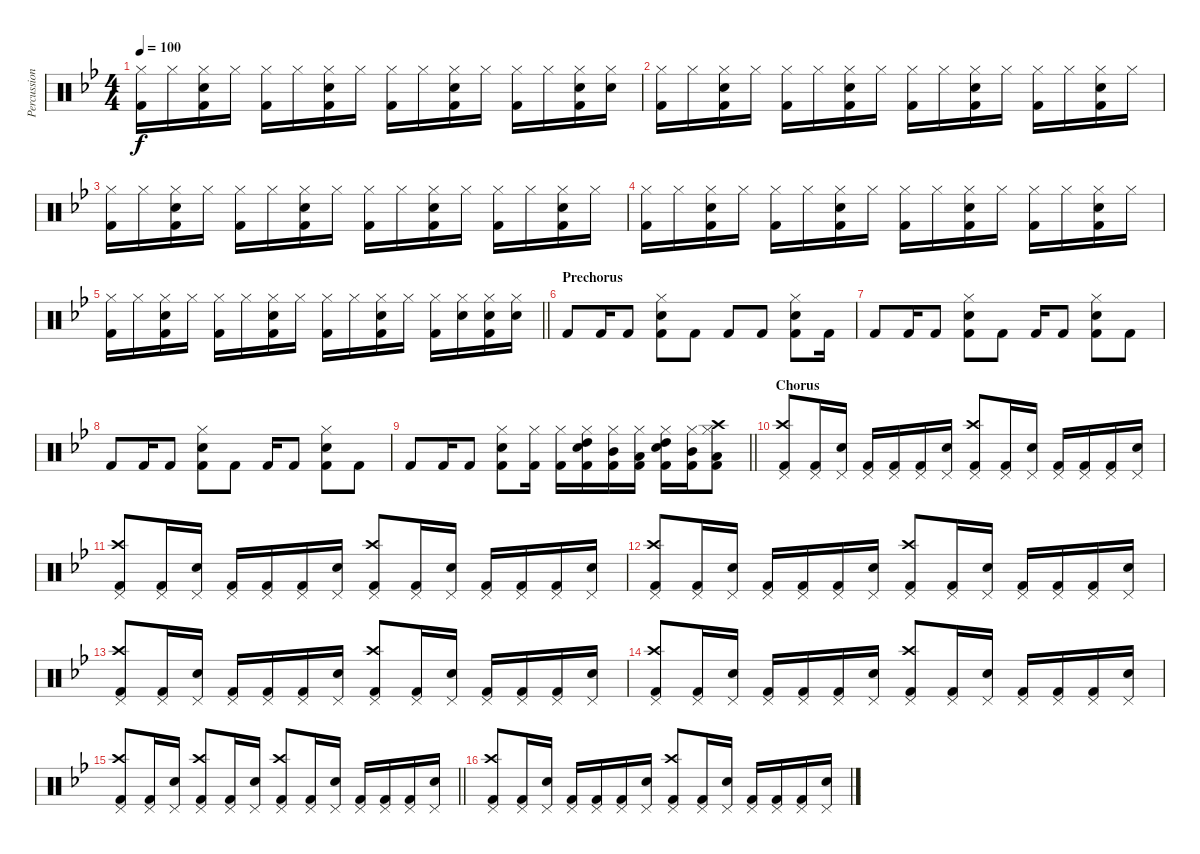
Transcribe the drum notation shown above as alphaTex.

\track ("Percussion" "Percussion") {instrument percussion}
\staff {score}
\articulation defaults
\ts (4 4)
\tempo 100
\clef neutral
\ks bb
("Hi-Hat (closed)" "Kick (hit) 2").16{dy f} "Hi-Hat (closed)".16 ("Electric Snare (hit)" "Hi-Hat (closed)" "Kick (hit) 2").16 "Hi-Hat (closed)".16 ("Hi-Hat (closed)" "Kick (hit) 2").16 "Hi-Hat (closed)".16 ("Electric Snare (hit)" "Hi-Hat (closed)" "Kick (hit) 2").16 "Hi-Hat (closed)".16 ("Hi-Hat (closed)" "Kick (hit) 2").16 "Hi-Hat (closed)".16 ("Electric Snare (hit)" "Hi-Hat (closed)" "Kick (hit) 2").16 "Hi-Hat (closed)".16 ("Hi-Hat (closed)" "Kick (hit) 2").16 "Hi-Hat (closed)".16 ("Electric Snare (hit)" "Hi-Hat (closed)" "Kick (hit) 2").16 ("Electric Snare (hit)" "Hi-Hat (closed)").16 |
("Hi-Hat (closed)" "Kick (hit) 2").16 "Hi-Hat (closed)".16 ("Electric Snare (hit)" "Hi-Hat (closed)" "Kick (hit) 2").16 "Hi-Hat (closed)".16 ("Hi-Hat (closed)" "Kick (hit) 2").16 "Hi-Hat (closed)".16 ("Electric Snare (hit)" "Hi-Hat (closed)" "Kick (hit) 2").16 "Hi-Hat (closed)".16 ("Hi-Hat (closed)" "Kick (hit) 2").16 "Hi-Hat (closed)".16 ("Electric Snare (hit)" "Hi-Hat (closed)" "Kick (hit) 2").16 "Hi-Hat (closed)".16 ("Hi-Hat (closed)" "Kick (hit) 2").16 "Hi-Hat (closed)".16 ("Electric Snare (hit)" "Hi-Hat (closed)" "Kick (hit) 2").16 "Hi-Hat (closed)".16 |
("Hi-Hat (closed)" "Kick (hit) 2").16 "Hi-Hat (closed)".16 ("Electric Snare (hit)" "Hi-Hat (closed)" "Kick (hit) 2").16 "Hi-Hat (closed)".16 ("Hi-Hat (closed)" "Kick (hit) 2").16 "Hi-Hat (closed)".16 ("Electric Snare (hit)" "Hi-Hat (closed)" "Kick (hit) 2").16 "Hi-Hat (closed)".16 ("Hi-Hat (closed)" "Kick (hit) 2").16 "Hi-Hat (closed)".16 ("Electric Snare (hit)" "Hi-Hat (closed)" "Kick (hit) 2").16 "Hi-Hat (closed)".16 ("Hi-Hat (closed)" "Kick (hit) 2").16 "Hi-Hat (closed)".16 ("Electric Snare (hit)" "Hi-Hat (closed)" "Kick (hit) 2").16 "Hi-Hat (closed)".16 |
("Hi-Hat (closed)" "Kick (hit) 2").16 "Hi-Hat (closed)".16 ("Electric Snare (hit)" "Hi-Hat (closed)" "Kick (hit) 2").16 "Hi-Hat (closed)".16 ("Hi-Hat (closed)" "Kick (hit) 2").16 "Hi-Hat (closed)".16 ("Electric Snare (hit)" "Hi-Hat (closed)" "Kick (hit) 2").16 "Hi-Hat (closed)".16 ("Hi-Hat (closed)" "Kick (hit) 2").16 "Hi-Hat (closed)".16 ("Electric Snare (hit)" "Hi-Hat (closed)" "Kick (hit) 2").16 "Hi-Hat (closed)".16 ("Hi-Hat (closed)" "Kick (hit) 2").16 "Hi-Hat (closed)".16 ("Electric Snare (hit)" "Hi-Hat (closed)" "Kick (hit) 2").16 "Hi-Hat (closed)".16 |
\barLineRight lightlight
("Hi-Hat (closed)" "Kick (hit) 2").16 "Hi-Hat (closed)".16 ("Electric Snare (hit)" "Hi-Hat (closed)" "Kick (hit) 2").16 "Hi-Hat (closed)".16 ("Hi-Hat (closed)" "Kick (hit) 2").16 "Hi-Hat (closed)".16 ("Electric Snare (hit)" "Hi-Hat (closed)" "Kick (hit) 2").16 "Hi-Hat (closed)".16 ("Hi-Hat (closed)" "Kick (hit) 2").16 "Hi-Hat (closed)".16 ("Electric Snare (hit)" "Hi-Hat (closed)" "Kick (hit) 2").16 "Hi-Hat (closed)".16 ("Hi-Hat (closed)" "Kick (hit) 2").16 ("Electric Snare (hit)" "Hi-Hat (closed)").16 ("Electric Snare (hit)" "Hi-Hat (closed)" "Kick (hit) 2").16 ("Electric Snare (hit)" "Hi-Hat (closed)").16 |
\section ("" "Prechorus")
"Kick (hit) 2".8 "Kick (hit) 2".16 "Kick (hit) 2".8 ("Electric Snare (hit)" "Hi-Hat (closed)" "Kick (hit) 2").8 "Kick (hit) 2".8 "Kick (hit) 2".8 "Kick (hit) 2".8 ("Electric Snare (hit)" "Hi-Hat (closed)" "Kick (hit) 2").8 "Kick (hit) 2".16 |
"Kick (hit) 2".8 "Kick (hit) 2".16 "Kick (hit) 2".8 ("Electric Snare (hit)" "Hi-Hat (closed)" "Kick (hit) 2").8 "Kick (hit) 2".8 "Kick (hit) 2".16 "Kick (hit) 2".8 ("Electric Snare (hit)" "Hi-Hat (closed)" "Kick (hit) 2").8 "Kick (hit) 2".8 |
"Kick (hit) 2".8 "Kick (hit) 2".16 "Kick (hit) 2".8 ("Electric Snare (hit)" "Hi-Hat (closed)" "Kick (hit) 2").8 "Kick (hit) 2".8 "Kick (hit) 2".16 "Kick (hit) 2".8 ("Electric Snare (hit)" "Hi-Hat (closed)" "Kick (hit) 2").8 "Kick (hit) 2".8 |
\barLineRight lightlight "Kick (hit) 2".8 "Kick (hit) 2".16 "Kick (hit) 2".8
("Electric Snare (hit)" "Hi-Hat (closed)" "Kick (hit) 2").8 ("Hi-Hat (closed)" "Kick (hit) 2").16 ("Hi-Hat (closed)" "Kick (hit) 2").16 ("High Tom (hit)" "Electric Snare (hit)" "Hi-Hat (closed)" "Kick (hit) 2").16 ("Mid Tom (hit)" "Hi-Hat (closed)" "Kick (hit) 2").16 ("Low Tom (hit)" "Hi-Hat (closed)" "Kick (hit) 2").16 ("High Tom (hit)" "Electric Snare (hit)" "Hi-Hat (closed)" "Kick (hit) 2").16 ("Mid Tom (hit)" "Hi-Hat (closed)" "Kick (hit) 2").16 ("Crash high (hit)" "Low Tom (hit)" "Hi-Hat (closed)" "Kick (hit) 2").8 |
\section ("" "Chorus")
("Crash high (hit)" "Pedal Hi-Hat (hit)" "Kick (hit) 2").8 ("Pedal Hi-Hat (hit)" "Kick (hit) 2").16 ("Electric Snare (hit)" "Pedal Hi-Hat (hit)").16 ("Pedal Hi-Hat (hit)" "Kick (hit) 2").16 ("Pedal Hi-Hat (hit)" "Kick (hit) 2").16 ("Pedal Hi-Hat (hit)" "Kick (hit) 2").16 ("Electric Snare (hit)" "Pedal Hi-Hat (hit)").16 ("Crash high (hit)" "Pedal Hi-Hat (hit)" "Kick (hit) 2").8 ("Pedal Hi-Hat (hit)" "Kick (hit) 2").16 ("Electric Snare (hit)" "Pedal Hi-Hat (hit)").16 ("Pedal Hi-Hat (hit)" "Kick (hit) 2").16 ("Pedal Hi-Hat (hit)" "Kick (hit) 2").16 ("Pedal Hi-Hat (hit)" "Kick (hit) 2").16 ("Electric Snare (hit)" "Pedal Hi-Hat (hit)").16 |
("Crash high (hit)" "Pedal Hi-Hat (hit)" "Kick (hit) 2").8 ("Pedal Hi-Hat (hit)" "Kick (hit) 2").16 ("Electric Snare (hit)" "Pedal Hi-Hat (hit)").16 ("Pedal Hi-Hat (hit)" "Kick (hit) 2").16 ("Pedal Hi-Hat (hit)" "Kick (hit) 2").16 ("Pedal Hi-Hat (hit)" "Kick (hit) 2").16 ("Electric Snare (hit)" "Pedal Hi-Hat (hit)").16 ("Crash high (hit)" "Pedal Hi-Hat (hit)" "Kick (hit) 2").8 ("Pedal Hi-Hat (hit)" "Kick (hit) 2").16 ("Electric Snare (hit)" "Pedal Hi-Hat (hit)").16 ("Pedal Hi-Hat (hit)" "Kick (hit) 2").16 ("Pedal Hi-Hat (hit)" "Kick (hit) 2").16 ("Pedal Hi-Hat (hit)" "Kick (hit) 2").16 ("Electric Snare (hit)" "Pedal Hi-Hat (hit)").16 |
("Crash high (hit)" "Pedal Hi-Hat (hit)" "Kick (hit) 2").8 ("Pedal Hi-Hat (hit)" "Kick (hit) 2").16 ("Electric Snare (hit)" "Pedal Hi-Hat (hit)").16 ("Pedal Hi-Hat (hit)" "Kick (hit) 2").16 ("Pedal Hi-Hat (hit)" "Kick (hit) 2").16 ("Pedal Hi-Hat (hit)" "Kick (hit) 2").16 ("Electric Snare (hit)" "Pedal Hi-Hat (hit)").16 ("Crash high (hit)" "Pedal Hi-Hat (hit)" "Kick (hit) 2").8 ("Pedal Hi-Hat (hit)" "Kick (hit) 2").16 ("Electric Snare (hit)" "Pedal Hi-Hat (hit)").16 ("Pedal Hi-Hat (hit)" "Kick (hit) 2").16 ("Pedal Hi-Hat (hit)" "Kick (hit) 2").16 ("Pedal Hi-Hat (hit)" "Kick (hit) 2").16 ("Electric Snare (hit)" "Pedal Hi-Hat (hit)").16 |
("Crash high (hit)" "Pedal Hi-Hat (hit)" "Kick (hit) 2").8 ("Pedal Hi-Hat (hit)" "Kick (hit) 2").16 ("Electric Snare (hit)" "Pedal Hi-Hat (hit)").16 ("Pedal Hi-Hat (hit)" "Kick (hit) 2").16 ("Pedal Hi-Hat (hit)" "Kick (hit) 2").16 ("Pedal Hi-Hat (hit)" "Kick (hit) 2").16 ("Electric Snare (hit)" "Pedal Hi-Hat (hit)").16 ("Crash high (hit)" "Pedal Hi-Hat (hit)" "Kick (hit) 2").8 ("Pedal Hi-Hat (hit)" "Kick (hit) 2").16 ("Electric Snare (hit)" "Pedal Hi-Hat (hit)").16 ("Pedal Hi-Hat (hit)" "Kick (hit) 2").16 ("Pedal Hi-Hat (hit)" "Kick (hit) 2").16 ("Pedal Hi-Hat (hit)" "Kick (hit) 2").16 ("Electric Snare (hit)" "Pedal Hi-Hat (hit)").16 |
("Crash high (hit)" "Pedal Hi-Hat (hit)" "Kick (hit) 2").8 ("Pedal Hi-Hat (hit)" "Kick (hit) 2").16 ("Electric Snare (hit)" "Pedal Hi-Hat (hit)").16 ("Pedal Hi-Hat (hit)" "Kick (hit) 2").16 ("Pedal Hi-Hat (hit)" "Kick (hit) 2").16 ("Pedal Hi-Hat (hit)" "Kick (hit) 2").16 ("Electric Snare (hit)" "Pedal Hi-Hat (hit)").16 ("Crash high (hit)" "Pedal Hi-Hat (hit)" "Kick (hit) 2").8 ("Pedal Hi-Hat (hit)" "Kick (hit) 2").16 ("Electric Snare (hit)" "Pedal Hi-Hat (hit)").16 ("Pedal Hi-Hat (hit)" "Kick (hit) 2").16 ("Pedal Hi-Hat (hit)" "Kick (hit) 2").16 ("Pedal Hi-Hat (hit)" "Kick (hit) 2").16 ("Electric Snare (hit)" "Pedal Hi-Hat (hit)").16 |
\barLineRight lightlight
("Crash high (hit)" "Pedal Hi-Hat (hit)" "Kick (hit) 2").8 ("Pedal Hi-Hat (hit)" "Kick (hit) 2").16 ("Electric Snare (hit)" "Pedal Hi-Hat (hit)").16 ("Crash high (hit)" "Pedal Hi-Hat (hit)" "Kick (hit) 2").8 ("Pedal Hi-Hat (hit)" "Kick (hit) 2").16 ("Electric Snare (hit)" "Pedal Hi-Hat (hit)").16 ("Crash high (hit)" "Pedal Hi-Hat (hit)" "Kick (hit) 2").8 ("Pedal Hi-Hat (hit)" "Kick (hit) 2").16 ("Electric Snare (hit)" "Pedal Hi-Hat (hit)").16 ("Pedal Hi-Hat (hit)" "Kick (hit) 2").16 ("Pedal Hi-Hat (hit)" "Kick (hit) 2").16 ("Pedal Hi-Hat (hit)" "Kick (hit) 2").16 ("Electric Snare (hit)" "Pedal Hi-Hat (hit)").16 |
\section ("" "")
("Crash high (hit)" "Pedal Hi-Hat (hit)" "Kick (hit) 2").8 ("Pedal Hi-Hat (hit)" "Kick (hit) 2").16 ("Electric Snare (hit)" "Pedal Hi-Hat (hit)").16 ("Pedal Hi-Hat (hit)" "Kick (hit) 2").16 ("Pedal Hi-Hat (hit)" "Kick (hit) 2").16 ("Pedal Hi-Hat (hit)" "Kick (hit) 2").16 ("Electric Snare (hit)" "Pedal Hi-Hat (hit)").16 ("Crash high (hit)" "Pedal Hi-Hat (hit)" "Kick (hit) 2").8 ("Pedal Hi-Hat (hit)" "Kick (hit) 2").16 ("Electric Snare (hit)" "Pedal Hi-Hat (hit)").16 ("Pedal Hi-Hat (hit)" "Kick (hit) 2").16 ("Pedal Hi-Hat (hit)" "Kick (hit) 2").16 ("Pedal Hi-Hat (hit)" "Kick (hit) 2").16 ("Electric Snare (hit)" "Pedal Hi-Hat (hit)").16
